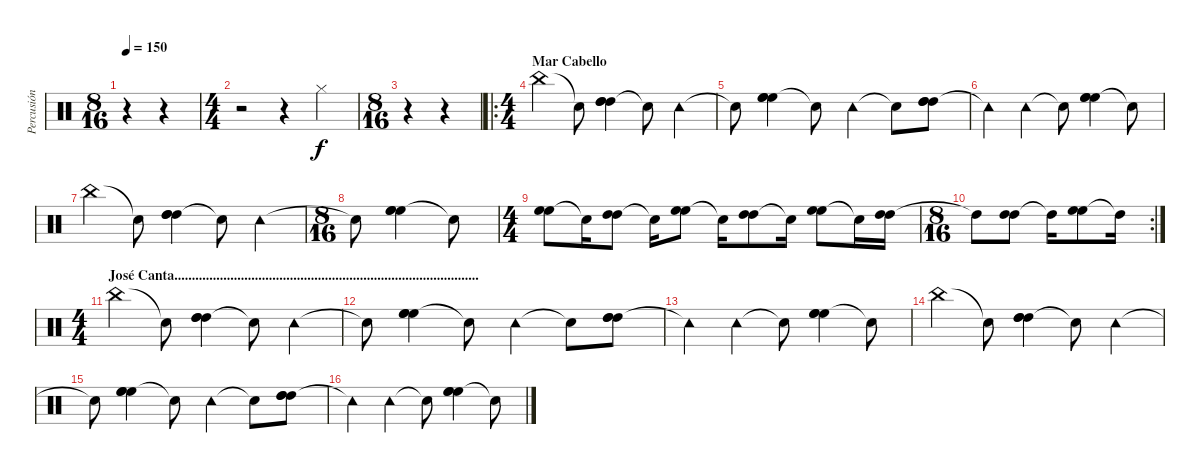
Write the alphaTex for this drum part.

\track ("Percusión" "Percusión") {instrument percussion}
\staff {score}
\articulation defaults
\ts (8 16)
\tempo 150
\clef neutral
\ks c
r.4{dy f} r.4 |
\ts (4 4)
r.2 r.4 "Hi-Hat (closed)".4 |
\ts (8 16)
r.4 r.4 |
\ro
\ts (4 4)
\section ("" "Mar Cabello")
"China (hit)".4 "Snare (hit)"{t}.8 ("High Tom (hit)" "High Tom (hit)" "High Tom (hit)").4 "Snare (hit)"{t}.8 "Tambourine (hit)".4 |
"Snare (hit)"{t}.8 ("High Floor Tom (hit)" "High Floor Tom (hit)" "High Floor Tom (hit)").4 "Snare (hit)"{t}.8 "Tambourine (hit)".4 "Snare (hit)"{t}.8 ("High Tom (hit)" "High Tom (hit)" "High Tom (hit)").8 |
"Tambourine (hit)"{t}.4 "Tambourine (hit)".4 "Snare (hit)"{t}.8 ("High Floor Tom (hit)" "High Floor Tom (hit)" "High Floor Tom (hit)").4 "Snare (hit)"{t}.8 |
"China (hit)".4 "Snare (hit)"{t}.8 ("High Tom (hit)" "High Tom (hit)" "High Tom (hit)").4 "Snare (hit)"{t}.8 "Tambourine (hit)".4 |
\ts (8 16)
"Snare (hit)"{t}.8 ("High Floor Tom (hit)" "High Floor Tom (hit)" "High Floor Tom (hit)").4 "Snare (hit)"{t}.8 |
\ts (4 4)
("High Floor Tom (hit)" "High Floor Tom (hit)").8 "Snare (hit)"{t}.16 ("High Tom (hit)" "High Tom (hit)").8 "Snare (hit)"{t}.16 ("High Floor Tom (hit)" "High Floor Tom (hit)").8 "Snare (hit)"{t}.16 ("High Tom (hit)" "High Tom (hit)").8 "Snare (hit)"{t}.16 ("High Floor Tom (hit)" "High Floor Tom (hit)").8 "Snare (hit)"{t}.16 ("High Tom (hit)" "High Tom (hit)").16 |
\rc 2
\ts (8 16)
"High Tom (hit)"{t}.8 ("High Tom (hit)" "High Tom (hit)").8 "High Tom (hit)"{t}.16 ("High Floor Tom (hit)" "High Floor Tom (hit)").8 "High Tom (hit)"{t}.16 |
\ts (4 4)
\section ("" "José Canta.......................................................................................")
"China (hit)".4 "Snare (hit)"{t}.8 ("High Tom (hit)" "High Tom (hit)" "High Tom (hit)").4 "Snare (hit)"{t}.8 "Tambourine (hit)".4 |
"Snare (hit)"{t}.8 ("High Floor Tom (hit)" "High Floor Tom (hit)" "High Floor Tom (hit)").4 "Snare (hit)"{t}.8 "Tambourine (hit)".4 "Snare (hit)"{t}.8 ("High Tom (hit)" "High Tom (hit)" "High Tom (hit)").8 |
"Tambourine (hit)"{t}.4 "Tambourine (hit)".4 "Snare (hit)"{t}.8 ("High Floor Tom (hit)" "High Floor Tom (hit)" "High Floor Tom (hit)").4 "Snare (hit)"{t}.8 |
"China (hit)".4 "Snare (hit)"{t}.8 ("High Tom (hit)" "High Tom (hit)" "High Tom (hit)").4 "Snare (hit)"{t}.8 "Tambourine (hit)".4 |
"Snare (hit)"{t}.8 ("High Floor Tom (hit)" "High Floor Tom (hit)" "High Floor Tom (hit)").4 "Snare (hit)"{t}.8 "Tambourine (hit)".4 "Snare (hit)"{t}.8 ("High Tom (hit)" "High Tom (hit)" "High Tom (hit)").8 |
"Tambourine (hit)"{t}.4 "Tambourine (hit)".4 "Snare (hit)"{t}.8 ("High Floor Tom (hit)" "High Floor Tom (hit)" "High Floor Tom (hit)").4 "Snare (hit)"{t}.8
